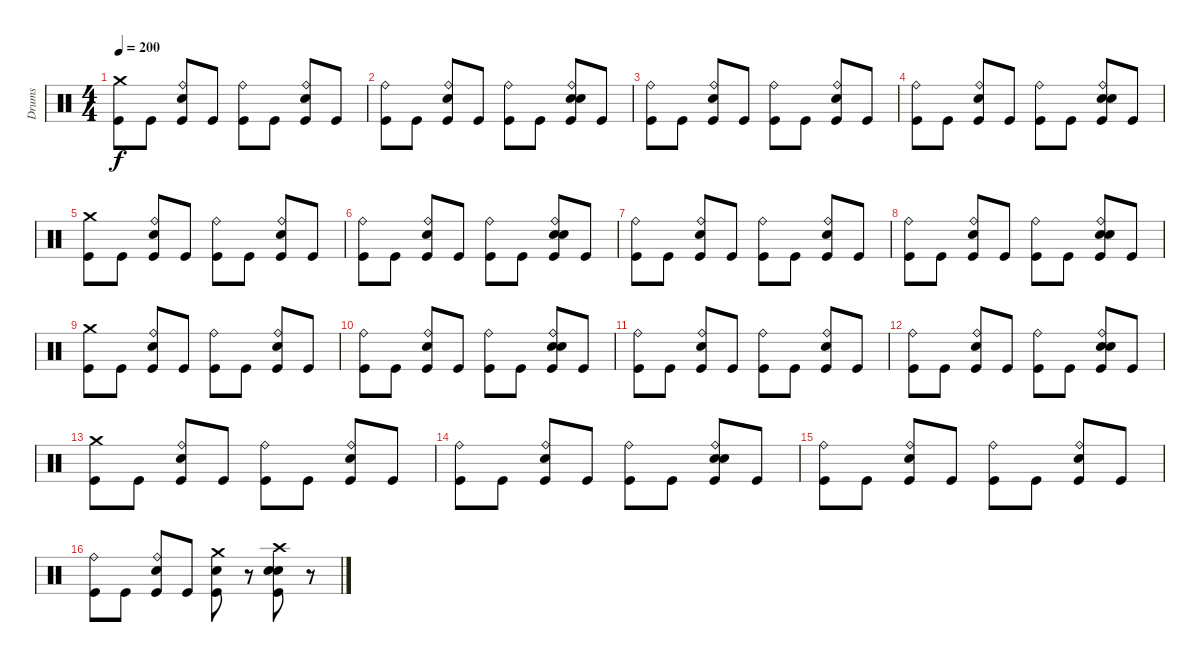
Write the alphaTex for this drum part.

\track ("Drums" "Drums") {instrument percussion}
\staff {score}
\articulation defaults
\ts (4 4)
\tempo 200
\clef neutral
\ks c
("Crash medium (hit)" "Kick (hit)").8{dy f} "Kick (hit)".8 ("Ride (bell)" "Snare (hit) 2" "Kick (hit)").8 "Kick (hit)".8 ("Ride (bell)" "Kick (hit)").8 "Kick (hit)".8 ("Ride (bell)" "Snare (hit) 2" "Kick (hit)").8 "Kick (hit)".8 |
("Ride (bell)" "Kick (hit)").8 "Kick (hit)".8 ("Ride (bell)" "Snare (hit) 2" "Kick (hit)").8 "Kick (hit)".8 ("Ride (bell)" "Kick (hit)").8 "Kick (hit)".8 ("Ride (bell)" "Hand Clap (hit)" "Snare (hit) 2" "Kick (hit)").8 "Kick (hit)".8 |
("Ride (bell)" "Kick (hit)").8 "Kick (hit)".8 ("Ride (bell)" "Snare (hit) 2" "Kick (hit)").8 "Kick (hit)".8 ("Ride (bell)" "Kick (hit)").8 "Kick (hit)".8 ("Ride (bell)" "Snare (hit) 2" "Kick (hit)").8 "Kick (hit)".8 |
("Ride (bell)" "Kick (hit)").8 "Kick (hit)".8 ("Ride (bell)" "Snare (hit) 2" "Kick (hit)").8 "Kick (hit)".8 ("Ride (bell)" "Kick (hit)").8 "Kick (hit)".8 ("Ride (bell)" "Hand Clap (hit)" "Snare (hit) 2" "Kick (hit)").8 "Kick (hit)".8 |
("Crash medium (hit)" "Kick (hit)").8 "Kick (hit)".8 ("Ride (bell)" "Snare (hit) 2" "Kick (hit)").8 "Kick (hit)".8 ("Ride (bell)" "Kick (hit)").8 "Kick (hit)".8 ("Ride (bell)" "Snare (hit) 2" "Kick (hit)").8 "Kick (hit)".8 |
("Ride (bell)" "Kick (hit)").8 "Kick (hit)".8 ("Ride (bell)" "Snare (hit) 2" "Kick (hit)").8 "Kick (hit)".8 ("Ride (bell)" "Kick (hit)").8 "Kick (hit)".8 ("Ride (bell)" "Hand Clap (hit)" "Snare (hit) 2" "Kick (hit)").8 "Kick (hit)".8 |
("Ride (bell)" "Kick (hit)").8 "Kick (hit)".8 ("Ride (bell)" "Snare (hit) 2" "Kick (hit)").8 "Kick (hit)".8 ("Ride (bell)" "Kick (hit)").8 "Kick (hit)".8 ("Ride (bell)" "Snare (hit) 2" "Kick (hit)").8 "Kick (hit)".8 |
("Ride (bell)" "Kick (hit)").8 "Kick (hit)".8 ("Ride (bell)" "Snare (hit) 2" "Kick (hit)").8 "Kick (hit)".8 ("Ride (bell)" "Kick (hit)").8 "Kick (hit)".8 ("Ride (bell)" "Hand Clap (hit)" "Snare (hit) 2" "Kick (hit)").8 "Kick (hit)".8 |
("Crash medium (hit)" "Kick (hit)").8 "Kick (hit)".8 ("Ride (bell)" "Snare (hit) 2" "Kick (hit)").8 "Kick (hit)".8 ("Ride (bell)" "Kick (hit)").8 "Kick (hit)".8 ("Ride (bell)" "Snare (hit) 2" "Kick (hit)").8 "Kick (hit)".8 |
("Ride (bell)" "Kick (hit)").8 "Kick (hit)".8 ("Ride (bell)" "Snare (hit) 2" "Kick (hit)").8 "Kick (hit)".8 ("Ride (bell)" "Kick (hit)").8 "Kick (hit)".8 ("Ride (bell)" "Hand Clap (hit)" "Snare (hit) 2" "Kick (hit)").8 "Kick (hit)".8 |
("Ride (bell)" "Kick (hit)").8 "Kick (hit)".8 ("Ride (bell)" "Snare (hit) 2" "Kick (hit)").8 "Kick (hit)".8 ("Ride (bell)" "Kick (hit)").8 "Kick (hit)".8 ("Ride (bell)" "Snare (hit) 2" "Kick (hit)").8 "Kick (hit)".8 |
("Ride (bell)" "Kick (hit)").8 "Kick (hit)".8 ("Ride (bell)" "Snare (hit) 2" "Kick (hit)").8 "Kick (hit)".8 ("Ride (bell)" "Kick (hit)").8 "Kick (hit)".8 ("Ride (bell)" "Hand Clap (hit)" "Snare (hit) 2" "Kick (hit)").8 "Kick (hit)".8 |
("Crash medium (hit)" "Kick (hit)").8 "Kick (hit)".8 ("Ride (bell)" "Snare (hit) 2" "Kick (hit)").8 "Kick (hit)".8 ("Ride (bell)" "Kick (hit)").8 "Kick (hit)".8 ("Ride (bell)" "Snare (hit) 2" "Kick (hit)").8 "Kick (hit)".8 |
("Ride (bell)" "Kick (hit)").8 "Kick (hit)".8 ("Ride (bell)" "Snare (hit) 2" "Kick (hit)").8 "Kick (hit)".8 ("Ride (bell)" "Kick (hit)").8 "Kick (hit)".8 ("Ride (bell)" "Hand Clap (hit)" "Snare (hit) 2" "Kick (hit)").8 "Kick (hit)".8 |
("Ride (bell)" "Kick (hit)").8 "Kick (hit)".8 ("Ride (bell)" "Snare (hit) 2" "Kick (hit)").8 "Kick (hit)".8 ("Ride (bell)" "Kick (hit)").8 "Kick (hit)".8 ("Ride (bell)" "Snare (hit) 2" "Kick (hit)").8 "Kick (hit)".8 |
("Ride (bell)" "Kick (hit)").8 "Kick (hit)".8 ("Ride (bell)" "Snare (hit) 2" "Kick (hit)").8 "Kick (hit)".8 ("Crash medium (hit)" "Hand Clap (hit)" "Kick (hit)").8 r.8 ("Crash high (hit)" "Hand Clap (hit)" "Snare (hit) 2" "Kick (hit)").8 r.8
